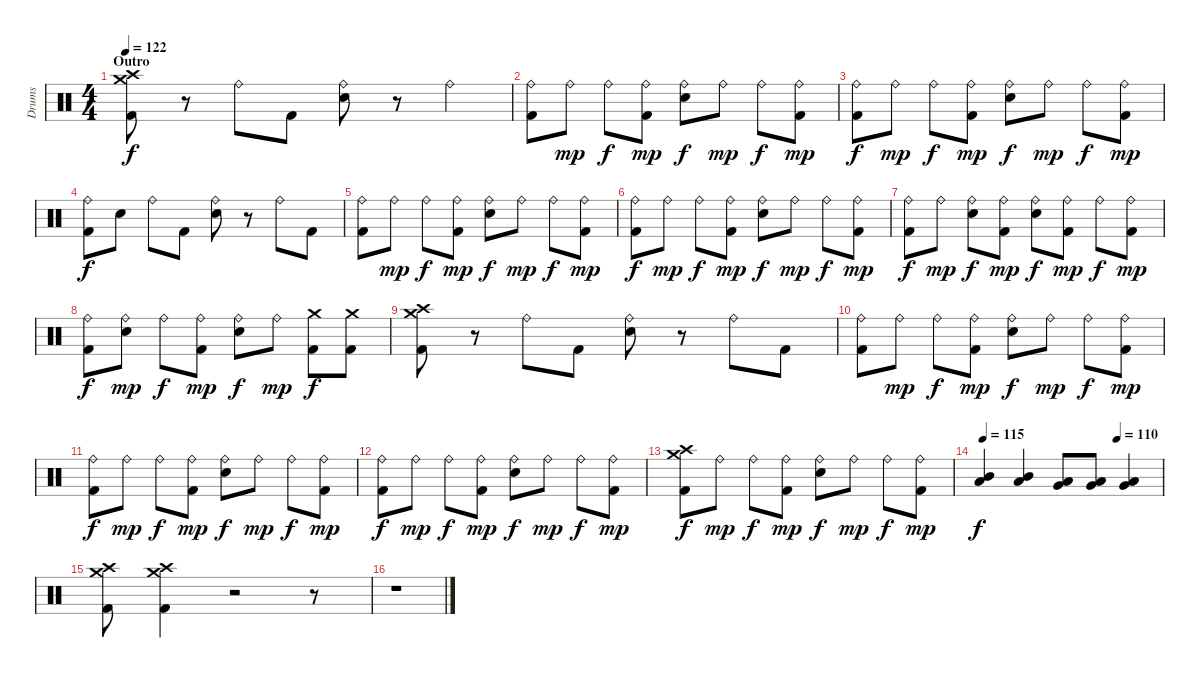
\track ("Drums" "Drums") {instrument percussion}
\staff {score}
\articulation defaults
\ts (4 4)
\section ("" "Outro")
\tempo 122
\clef neutral
\ks c
("Crash high (hit)" "Crash medium (hit)" "Kick (hit) 2").8{dy f} r.8 "Ride (bell)".8 "Kick (hit) 2".8 ("Ride (bell)" "Snare (hit) 2").8 r.8 "Ride (bell)".4 |
("Ride (bell)" "Kick (hit) 2").8 "Ride (bell)".8{dy mp} "Ride (bell)".8{dy f} ("Ride (bell)" "Kick (hit) 2").8{dy mp} ("Ride (bell)" "Snare (hit) 2").8{dy f} "Ride (bell)".8{dy mp} "Ride (bell)".8{dy f} ("Ride (bell)" "Kick (hit) 2").8{dy mp} |
("Ride (bell)" "Kick (hit) 2").8{dy f} "Ride (bell)".8{dy mp} "Ride (bell)".8{dy f} ("Ride (bell)" "Kick (hit) 2").8{dy mp} ("Ride (bell)" "Snare (hit) 2").8{dy f} "Ride (bell)".8{dy mp} "Ride (bell)".8{dy f} ("Ride (bell)" "Kick (hit) 2").8{dy mp} |
("Ride (bell)" "Kick (hit) 2").8{dy f} "Snare (hit) 2".8 "Ride (bell)".8 "Kick (hit) 2".8 ("Ride (bell)" "Snare (hit) 2").8 r.8 "Ride (bell)".8 "Kick (hit) 2".8 |
("Ride (bell)" "Kick (hit) 2").8 "Ride (bell)".8{dy mp} "Ride (bell)".8{dy f} ("Ride (bell)" "Kick (hit) 2").8{dy mp} ("Ride (bell)" "Snare (hit) 2").8{dy f} "Ride (bell)".8{dy mp} "Ride (bell)".8{dy f} ("Ride (bell)" "Kick (hit) 2").8{dy mp} |
("Ride (bell)" "Kick (hit) 2").8{dy f} "Ride (bell)".8{dy mp} "Ride (bell)".8{dy f} ("Ride (bell)" "Kick (hit) 2").8{dy mp} ("Ride (bell)" "Snare (hit) 2").8{dy f} "Ride (bell)".8{dy mp} "Ride (bell)".8{dy f} ("Ride (bell)" "Kick (hit) 2").8{dy mp} |
("Ride (bell)" "Kick (hit) 2").8{dy f} "Ride (bell)".8{dy mp} ("Ride (bell)" "Snare (hit) 2").8{dy f} ("Ride (bell)" "Kick (hit) 2").8{dy mp} ("Ride (bell)" "Snare (hit) 2").8{dy f} ("Ride (bell)" "Kick (hit) 2").8{dy mp} "Ride (bell)".8{dy f} ("Ride (bell)" "Kick (hit) 2").8{dy mp} |
("Ride (bell)" "Kick (hit) 2").8{dy f} ("Ride (bell)" "Snare (hit) 2").8{dy mp} "Ride (bell)".8{dy f} ("Ride (bell)" "Kick (hit) 2").8{dy mp} ("Ride (bell)" "Snare (hit) 2").8{dy f} "Ride (bell)".8{dy mp} ("Crash medium (hit)" "Kick (hit) 2").8{dy f} ("Crash medium (hit)" "Kick (hit) 2").8 |
("Crash high (hit)" "Crash medium (hit)" "Kick (hit) 2").8 r.8 "Ride (bell)".8 "Kick (hit) 2".8 ("Ride (bell)" "Snare (hit) 2").8 r.8 "Ride (bell)".8 "Kick (hit) 2".8 |
("Ride (bell)" "Kick (hit) 2").8 "Ride (bell)".8{dy mp} "Ride (bell)".8{dy f} ("Ride (bell)" "Kick (hit) 2").8{dy mp} ("Ride (bell)" "Snare (hit) 2").8{dy f} "Ride (bell)".8{dy mp} "Ride (bell)".8{dy f} ("Ride (bell)" "Kick (hit) 2").8{dy mp} |
("Ride (bell)" "Kick (hit) 2").8{dy f} "Ride (bell)".8{dy mp} "Ride (bell)".8{dy f} ("Ride (bell)" "Kick (hit) 2").8{dy mp} ("Ride (bell)" "Snare (hit) 2").8{dy f} "Ride (bell)".8{dy mp} "Ride (bell)".8{dy f} ("Ride (bell)" "Kick (hit) 2").8{dy mp} |
("Ride (bell)" "Kick (hit) 2").8{dy f} "Ride (bell)".8{dy mp} "Ride (bell)".8{dy f} ("Ride (bell)" "Kick (hit) 2").8{dy mp} ("Ride (bell)" "Snare (hit) 2").8{dy f} "Ride (bell)".8{dy mp} "Ride (bell)".8{dy f} ("Ride (bell)" "Kick (hit) 2").8{dy mp} |
("Crash high (hit)" "Crash medium (hit)" "Kick (hit) 2").8{dy f} "Ride (bell)".8{dy mp} "Ride (bell)".8{dy f} ("Ride (bell)" "Kick (hit) 2").8{dy mp} ("Ride (bell)" "Snare (hit) 2").8{dy f} "Ride (bell)".8{dy mp} "Ride (bell)".8{dy f} ("Ride (bell)" "Kick (hit) 2").8{dy mp} |
\tempo 115
\tempo (110 0.75)
("Mid Tom (hit)" "Low Tom (hit)").4{dy f} ("Mid Tom (hit)" "Low Tom (hit)").4 ("Low Tom (hit)" "Very Low Tom (hit)").8 ("Low Tom (hit)" "Very Low Tom (hit)").8 ("Low Tom (hit)" "Very Low Tom (hit)").4 |
("Crash high (hit)" "Crash medium (hit)" "Kick (hit) 2").8 ("Crash high (hit)" "Crash medium (hit)" "Kick (hit) 2").4 r.2 r.8 |
r.1
